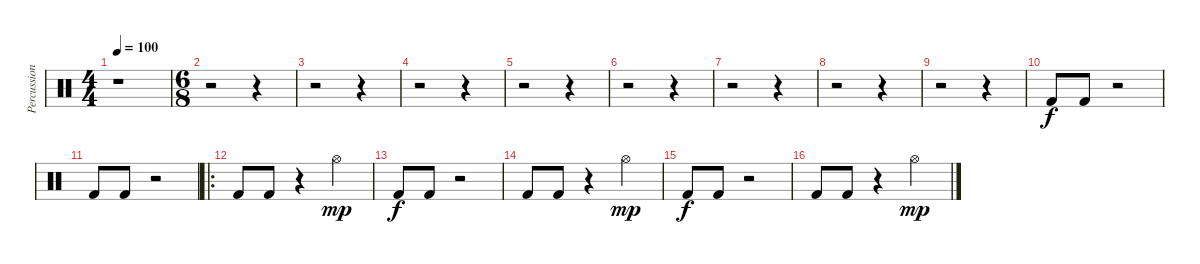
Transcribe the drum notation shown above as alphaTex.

\track ("Percussioni" "Percussion") {instrument percussion}
\staff {score}
\articulation defaults
\ts (4 4)
\tempo 100
\clef neutral
\ks c
r.1{dy f} |
\ts (6 8)
r.2 r.4 |
r.2 r.4 |
r.2 r.4 |
r.2 r.4 |
r.2 r.4 |
r.2 r.4 |
r.2 r.4 |
r.2 r.4 |
"Kick (hit) 2".8 "Kick (hit) 2".8 r.2 |
"Kick (hit) 2".8 "Kick (hit) 2".8 r.2 |
\ro "Kick (hit) 2".8 "Kick (hit) 2".8
r.4 "Hi-Hat (open)".4{dy mp} |
"Kick (hit) 2".8{dy f} "Kick (hit) 2".8 r.2 |
"Kick (hit) 2".8 "Kick (hit) 2".8 r.4 "Hi-Hat (open)".4{dy mp} |
"Kick (hit) 2".8{dy f} "Kick (hit) 2".8 r.2 |
"Kick (hit) 2".8 "Kick (hit) 2".8 r.4 "Hi-Hat (open)".4{dy mp}
